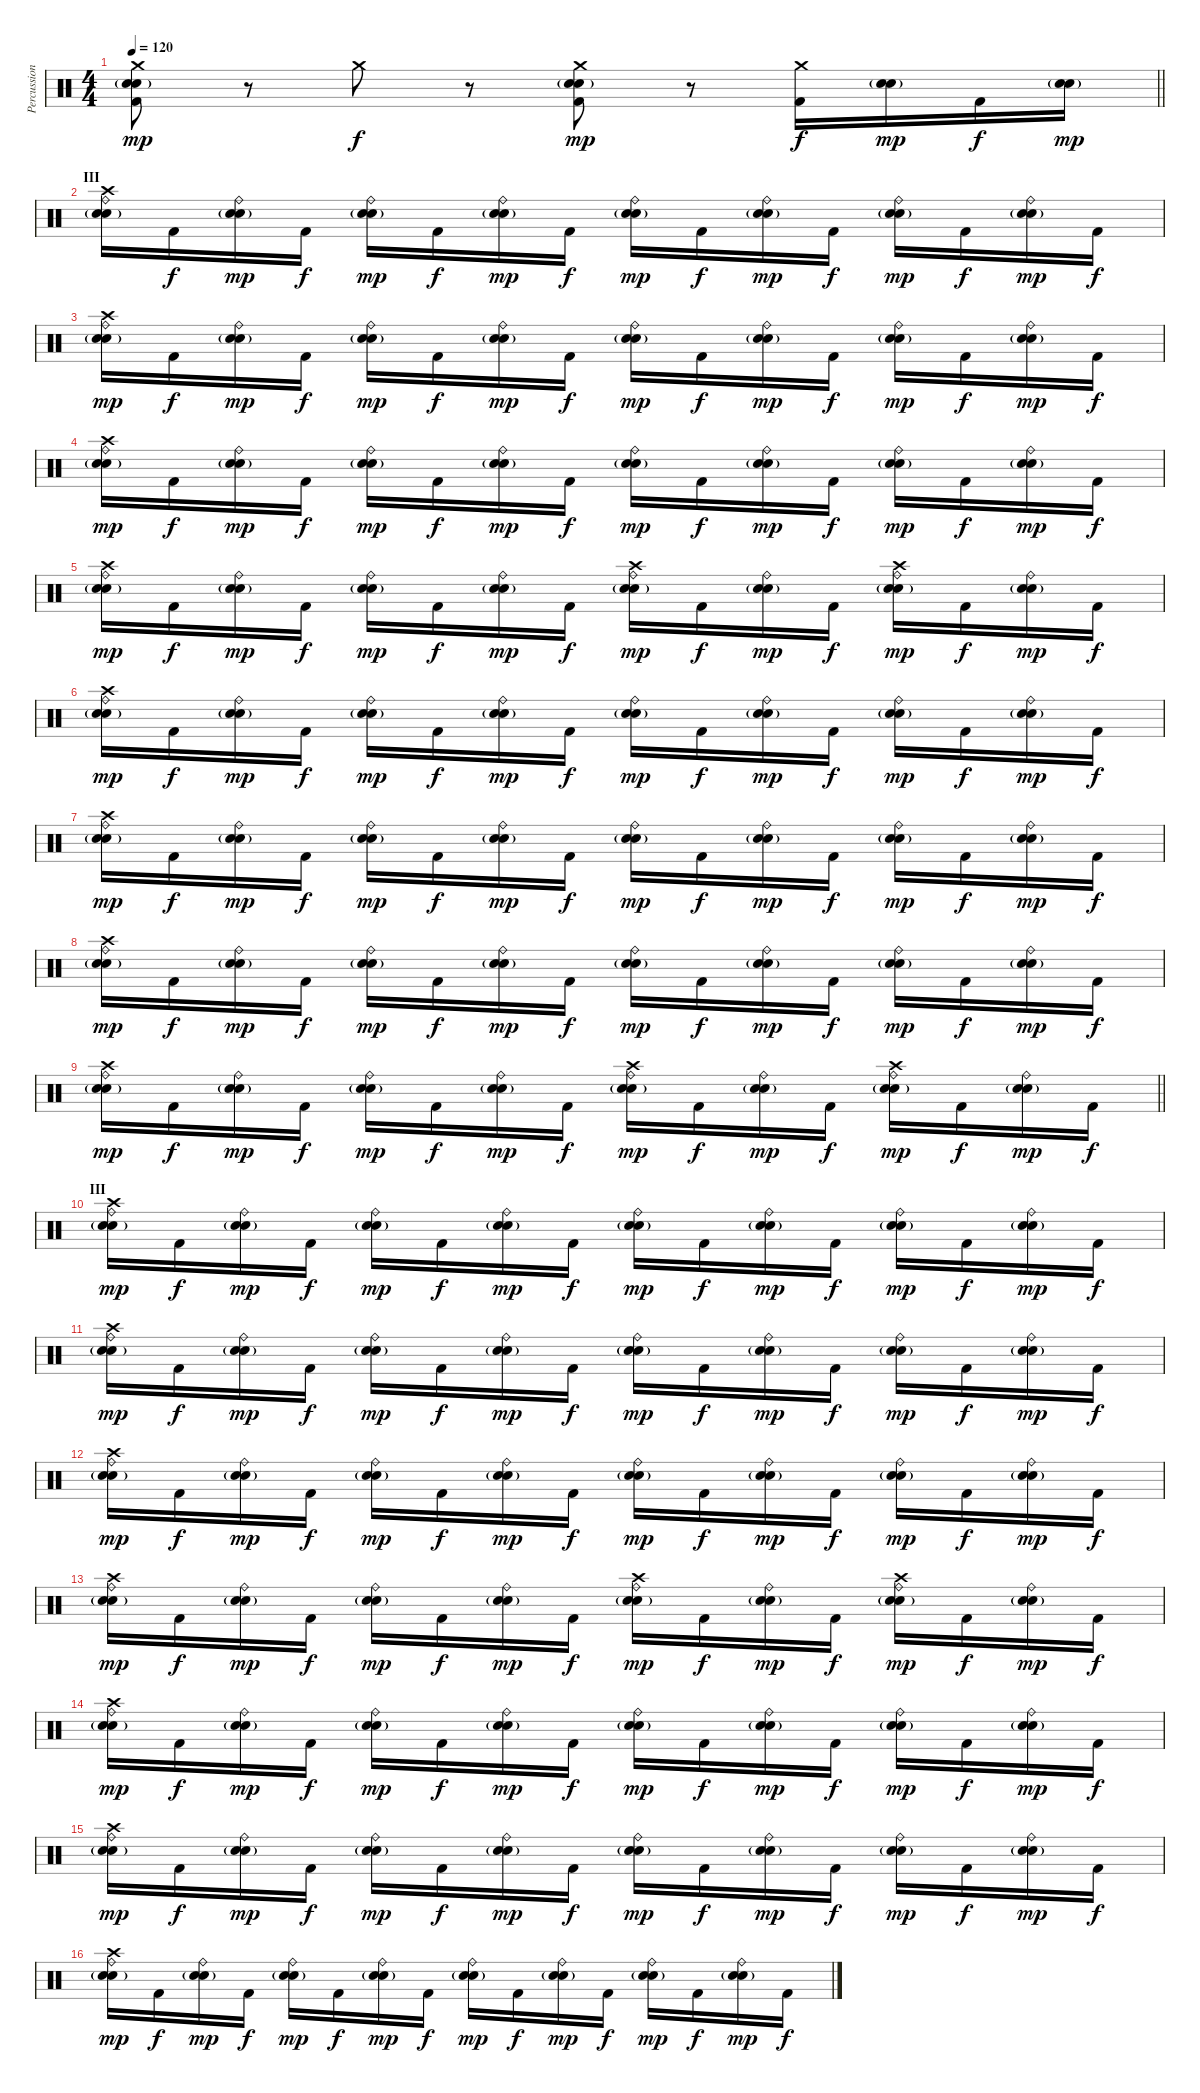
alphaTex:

\track ("Percussion" "Percussion") {instrument percussion}
\staff {score}
\articulation defaults
\ts (4 4)
\tempo 120
\clef neutral
\barLineRight lightlight
\ks c
("Crash medium (hit)" "Electric Snare (hit)" "Snare (hit) 2"{g} "Kick (hit) 2").8{dy mp} r.8 "Crash medium (hit)".8{dy f} r.8 ("Crash medium (hit)" "Electric Snare (hit)" "Snare (hit) 2"{g} "Kick (hit) 2").8{dy mp} r.8 ("Crash medium (hit)" "Kick (hit) 2").16{dy f} ("Electric Snare (hit)" "Snare (hit) 2"{g}).16{dy mp} "Kick (hit) 2".16{dy f} ("Electric Snare (hit)" "Snare (hit) 2"{g}).16{dy mp} |
\section ("" "III")
("Crash high (hit)" "Electric Snare (hit)" "Snare (hit) 2"{g} "Ride (bell)").16 "Kick (hit) 2".16{dy f} ("Electric Snare (hit)" "Snare (hit) 2"{g} "Ride (bell)").16{dy mp} "Kick (hit) 2".16{dy f} ("Electric Snare (hit)" "Snare (hit) 2"{g} "Ride (bell)").16{dy mp} "Kick (hit) 2".16{dy f} ("Electric Snare (hit)" "Snare (hit) 2"{g} "Ride (bell)").16{dy mp} "Kick (hit) 2".16{dy f} ("Electric Snare (hit)" "Snare (hit) 2"{g} "Ride (bell)").16{dy mp} "Kick (hit) 2".16{dy f} ("Electric Snare (hit)" "Snare (hit) 2"{g} "Ride (bell)").16{dy mp} "Kick (hit) 2".16{dy f} ("Electric Snare (hit)" "Snare (hit) 2"{g} "Ride (bell)").16{dy mp} "Kick (hit) 2".16{dy f} ("Electric Snare (hit)" "Snare (hit) 2"{g} "Ride (bell)").16{dy mp} "Kick (hit) 2".16{dy f} |
("Crash high (hit)" "Electric Snare (hit)" "Snare (hit) 2"{g} "Ride (bell)").16{dy mp} "Kick (hit) 2".16{dy f} ("Electric Snare (hit)" "Snare (hit) 2"{g} "Ride (bell)").16{dy mp} "Kick (hit) 2".16{dy f} ("Electric Snare (hit)" "Snare (hit) 2"{g} "Ride (bell)").16{dy mp} "Kick (hit) 2".16{dy f} ("Electric Snare (hit)" "Snare (hit) 2"{g} "Ride (bell)").16{dy mp} "Kick (hit) 2".16{dy f} ("Electric Snare (hit)" "Snare (hit) 2"{g} "Ride (bell)").16{dy mp} "Kick (hit) 2".16{dy f} ("Electric Snare (hit)" "Snare (hit) 2"{g} "Ride (bell)").16{dy mp} "Kick (hit) 2".16{dy f} ("Electric Snare (hit)" "Snare (hit) 2"{g} "Ride (bell)").16{dy mp} "Kick (hit) 2".16{dy f} ("Electric Snare (hit)" "Snare (hit) 2"{g} "Ride (bell)").16{dy mp} "Kick (hit) 2".16{dy f} |
("Crash high (hit)" "Electric Snare (hit)" "Snare (hit) 2"{g} "Ride (bell)").16{dy mp} "Kick (hit) 2".16{dy f} ("Electric Snare (hit)" "Snare (hit) 2"{g} "Ride (bell)").16{dy mp} "Kick (hit) 2".16{dy f} ("Electric Snare (hit)" "Snare (hit) 2"{g} "Ride (bell)").16{dy mp} "Kick (hit) 2".16{dy f} ("Electric Snare (hit)" "Snare (hit) 2"{g} "Ride (bell)").16{dy mp} "Kick (hit) 2".16{dy f} ("Electric Snare (hit)" "Snare (hit) 2"{g} "Ride (bell)").16{dy mp} "Kick (hit) 2".16{dy f} ("Electric Snare (hit)" "Snare (hit) 2"{g} "Ride (bell)").16{dy mp} "Kick (hit) 2".16{dy f} ("Electric Snare (hit)" "Snare (hit) 2"{g} "Ride (bell)").16{dy mp} "Kick (hit) 2".16{dy f} ("Electric Snare (hit)" "Snare (hit) 2"{g} "Ride (bell)").16{dy mp} "Kick (hit) 2".16{dy f} |
("Crash high (hit)" "Electric Snare (hit)" "Snare (hit) 2"{g} "Ride (bell)").16{dy mp} "Kick (hit) 2".16{dy f} ("Electric Snare (hit)" "Snare (hit) 2"{g} "Ride (bell)").16{dy mp} "Kick (hit) 2".16{dy f} ("Electric Snare (hit)" "Snare (hit) 2"{g} "Ride (bell)").16{dy mp} "Kick (hit) 2".16{dy f} ("Electric Snare (hit)" "Snare (hit) 2"{g} "Ride (bell)").16{dy mp} "Kick (hit) 2".16{dy f} ("Crash high (hit)" "Electric Snare (hit)" "Snare (hit) 2"{g} "Ride (bell)").16{dy mp} "Kick (hit) 2".16{dy f} ("Electric Snare (hit)" "Snare (hit) 2"{g} "Ride (bell)").16{dy mp} "Kick (hit) 2".16{dy f} ("Crash high (hit)" "Electric Snare (hit)" "Snare (hit) 2"{g} "Ride (bell)").16{dy mp} "Kick (hit) 2".16{dy f} ("Electric Snare (hit)" "Snare (hit) 2"{g} "Ride (bell)").16{dy mp} "Kick (hit) 2".16{dy f} |
("Crash high (hit)" "Electric Snare (hit)" "Snare (hit) 2"{g} "Ride (bell)").16{dy mp} "Kick (hit) 2".16{dy f} ("Electric Snare (hit)" "Snare (hit) 2"{g} "Ride (bell)").16{dy mp} "Kick (hit) 2".16{dy f} ("Electric Snare (hit)" "Snare (hit) 2"{g} "Ride (bell)").16{dy mp} "Kick (hit) 2".16{dy f} ("Electric Snare (hit)" "Snare (hit) 2"{g} "Ride (bell)").16{dy mp} "Kick (hit) 2".16{dy f} ("Electric Snare (hit)" "Snare (hit) 2"{g} "Ride (bell)").16{dy mp} "Kick (hit) 2".16{dy f} ("Electric Snare (hit)" "Snare (hit) 2"{g} "Ride (bell)").16{dy mp} "Kick (hit) 2".16{dy f} ("Electric Snare (hit)" "Snare (hit) 2"{g} "Ride (bell)").16{dy mp} "Kick (hit) 2".16{dy f} ("Electric Snare (hit)" "Snare (hit) 2"{g} "Ride (bell)").16{dy mp} "Kick (hit) 2".16{dy f} |
("Crash high (hit)" "Electric Snare (hit)" "Snare (hit) 2"{g} "Ride (bell)").16{dy mp} "Kick (hit) 2".16{dy f} ("Electric Snare (hit)" "Snare (hit) 2"{g} "Ride (bell)").16{dy mp} "Kick (hit) 2".16{dy f} ("Electric Snare (hit)" "Snare (hit) 2"{g} "Ride (bell)").16{dy mp} "Kick (hit) 2".16{dy f} ("Electric Snare (hit)" "Snare (hit) 2"{g} "Ride (bell)").16{dy mp} "Kick (hit) 2".16{dy f} ("Electric Snare (hit)" "Snare (hit) 2"{g} "Ride (bell)").16{dy mp} "Kick (hit) 2".16{dy f} ("Electric Snare (hit)" "Snare (hit) 2"{g} "Ride (bell)").16{dy mp} "Kick (hit) 2".16{dy f} ("Electric Snare (hit)" "Snare (hit) 2"{g} "Ride (bell)").16{dy mp} "Kick (hit) 2".16{dy f} ("Electric Snare (hit)" "Snare (hit) 2"{g} "Ride (bell)").16{dy mp} "Kick (hit) 2".16{dy f} |
("Crash high (hit)" "Electric Snare (hit)" "Snare (hit) 2"{g} "Ride (bell)").16{dy mp} "Kick (hit) 2".16{dy f} ("Electric Snare (hit)" "Snare (hit) 2"{g} "Ride (bell)").16{dy mp} "Kick (hit) 2".16{dy f} ("Electric Snare (hit)" "Snare (hit) 2"{g} "Ride (bell)").16{dy mp} "Kick (hit) 2".16{dy f} ("Electric Snare (hit)" "Snare (hit) 2"{g} "Ride (bell)").16{dy mp} "Kick (hit) 2".16{dy f} ("Electric Snare (hit)" "Snare (hit) 2"{g} "Ride (bell)").16{dy mp} "Kick (hit) 2".16{dy f} ("Electric Snare (hit)" "Snare (hit) 2"{g} "Ride (bell)").16{dy mp} "Kick (hit) 2".16{dy f} ("Electric Snare (hit)" "Snare (hit) 2"{g} "Ride (bell)").16{dy mp} "Kick (hit) 2".16{dy f} ("Electric Snare (hit)" "Snare (hit) 2"{g} "Ride (bell)").16{dy mp} "Kick (hit) 2".16{dy f} |
\barLineRight lightlight
("Crash high (hit)" "Electric Snare (hit)" "Snare (hit) 2"{g} "Ride (bell)").16{dy mp} "Kick (hit) 2".16{dy f} ("Electric Snare (hit)" "Snare (hit) 2"{g} "Ride (bell)").16{dy mp} "Kick (hit) 2".16{dy f} ("Electric Snare (hit)" "Snare (hit) 2"{g} "Ride (bell)").16{dy mp} "Kick (hit) 2".16{dy f} ("Electric Snare (hit)" "Snare (hit) 2"{g} "Ride (bell)").16{dy mp} "Kick (hit) 2".16{dy f} ("Crash high (hit)" "Electric Snare (hit)" "Snare (hit) 2"{g} "Ride (bell)").16{dy mp} "Kick (hit) 2".16{dy f} ("Electric Snare (hit)" "Snare (hit) 2"{g} "Ride (bell)").16{dy mp} "Kick (hit) 2".16{dy f} ("Crash high (hit)" "Electric Snare (hit)" "Snare (hit) 2"{g} "Ride (bell)").16{dy mp} "Kick (hit) 2".16{dy f} ("Electric Snare (hit)" "Snare (hit) 2"{g} "Ride (bell)").16{dy mp} "Kick (hit) 2".16{dy f} |
\section ("" "III")
("Crash high (hit)" "Electric Snare (hit)" "Snare (hit) 2"{g} "Ride (bell)").16{dy mp} "Kick (hit) 2".16{dy f} ("Electric Snare (hit)" "Snare (hit) 2"{g} "Ride (bell)").16{dy mp} "Kick (hit) 2".16{dy f} ("Electric Snare (hit)" "Snare (hit) 2"{g} "Ride (bell)").16{dy mp} "Kick (hit) 2".16{dy f} ("Electric Snare (hit)" "Snare (hit) 2"{g} "Ride (bell)").16{dy mp} "Kick (hit) 2".16{dy f} ("Electric Snare (hit)" "Snare (hit) 2"{g} "Ride (bell)").16{dy mp} "Kick (hit) 2".16{dy f} ("Electric Snare (hit)" "Snare (hit) 2"{g} "Ride (bell)").16{dy mp} "Kick (hit) 2".16{dy f} ("Electric Snare (hit)" "Snare (hit) 2"{g} "Ride (bell)").16{dy mp} "Kick (hit) 2".16{dy f} ("Electric Snare (hit)" "Snare (hit) 2"{g} "Ride (bell)").16{dy mp} "Kick (hit) 2".16{dy f} |
("Crash high (hit)" "Electric Snare (hit)" "Snare (hit) 2"{g} "Ride (bell)").16{dy mp} "Kick (hit) 2".16{dy f} ("Electric Snare (hit)" "Snare (hit) 2"{g} "Ride (bell)").16{dy mp} "Kick (hit) 2".16{dy f} ("Electric Snare (hit)" "Snare (hit) 2"{g} "Ride (bell)").16{dy mp} "Kick (hit) 2".16{dy f} ("Electric Snare (hit)" "Snare (hit) 2"{g} "Ride (bell)").16{dy mp} "Kick (hit) 2".16{dy f} ("Electric Snare (hit)" "Snare (hit) 2"{g} "Ride (bell)").16{dy mp} "Kick (hit) 2".16{dy f} ("Electric Snare (hit)" "Snare (hit) 2"{g} "Ride (bell)").16{dy mp} "Kick (hit) 2".16{dy f} ("Electric Snare (hit)" "Snare (hit) 2"{g} "Ride (bell)").16{dy mp} "Kick (hit) 2".16{dy f} ("Electric Snare (hit)" "Snare (hit) 2"{g} "Ride (bell)").16{dy mp} "Kick (hit) 2".16{dy f} |
("Crash high (hit)" "Electric Snare (hit)" "Snare (hit) 2"{g} "Ride (bell)").16{dy mp} "Kick (hit) 2".16{dy f} ("Electric Snare (hit)" "Snare (hit) 2"{g} "Ride (bell)").16{dy mp} "Kick (hit) 2".16{dy f} ("Electric Snare (hit)" "Snare (hit) 2"{g} "Ride (bell)").16{dy mp} "Kick (hit) 2".16{dy f} ("Electric Snare (hit)" "Snare (hit) 2"{g} "Ride (bell)").16{dy mp} "Kick (hit) 2".16{dy f} ("Electric Snare (hit)" "Snare (hit) 2"{g} "Ride (bell)").16{dy mp} "Kick (hit) 2".16{dy f} ("Electric Snare (hit)" "Snare (hit) 2"{g} "Ride (bell)").16{dy mp} "Kick (hit) 2".16{dy f} ("Electric Snare (hit)" "Snare (hit) 2"{g} "Ride (bell)").16{dy mp} "Kick (hit) 2".16{dy f} ("Electric Snare (hit)" "Snare (hit) 2"{g} "Ride (bell)").16{dy mp} "Kick (hit) 2".16{dy f} |
("Crash high (hit)" "Electric Snare (hit)" "Snare (hit) 2"{g} "Ride (bell)").16{dy mp} "Kick (hit) 2".16{dy f} ("Electric Snare (hit)" "Snare (hit) 2"{g} "Ride (bell)").16{dy mp} "Kick (hit) 2".16{dy f} ("Electric Snare (hit)" "Snare (hit) 2"{g} "Ride (bell)").16{dy mp} "Kick (hit) 2".16{dy f} ("Electric Snare (hit)" "Snare (hit) 2"{g} "Ride (bell)").16{dy mp} "Kick (hit) 2".16{dy f} ("Crash high (hit)" "Electric Snare (hit)" "Snare (hit) 2"{g} "Ride (bell)").16{dy mp} "Kick (hit) 2".16{dy f} ("Electric Snare (hit)" "Snare (hit) 2"{g} "Ride (bell)").16{dy mp} "Kick (hit) 2".16{dy f} ("Crash high (hit)" "Electric Snare (hit)" "Snare (hit) 2"{g} "Ride (bell)").16{dy mp} "Kick (hit) 2".16{dy f} ("Electric Snare (hit)" "Snare (hit) 2"{g} "Ride (bell)").16{dy mp} "Kick (hit) 2".16{dy f} |
("Crash high (hit)" "Electric Snare (hit)" "Snare (hit) 2"{g} "Ride (bell)").16{dy mp} "Kick (hit) 2".16{dy f} ("Electric Snare (hit)" "Snare (hit) 2"{g} "Ride (bell)").16{dy mp} "Kick (hit) 2".16{dy f} ("Electric Snare (hit)" "Snare (hit) 2"{g} "Ride (bell)").16{dy mp} "Kick (hit) 2".16{dy f} ("Electric Snare (hit)" "Snare (hit) 2"{g} "Ride (bell)").16{dy mp} "Kick (hit) 2".16{dy f} ("Electric Snare (hit)" "Snare (hit) 2"{g} "Ride (bell)").16{dy mp} "Kick (hit) 2".16{dy f} ("Electric Snare (hit)" "Snare (hit) 2"{g} "Ride (bell)").16{dy mp} "Kick (hit) 2".16{dy f} ("Electric Snare (hit)" "Snare (hit) 2"{g} "Ride (bell)").16{dy mp} "Kick (hit) 2".16{dy f} ("Electric Snare (hit)" "Snare (hit) 2"{g} "Ride (bell)").16{dy mp} "Kick (hit) 2".16{dy f} |
("Crash high (hit)" "Electric Snare (hit)" "Snare (hit) 2"{g} "Ride (bell)").16{dy mp} "Kick (hit) 2".16{dy f} ("Electric Snare (hit)" "Snare (hit) 2"{g} "Ride (bell)").16{dy mp} "Kick (hit) 2".16{dy f} ("Electric Snare (hit)" "Snare (hit) 2"{g} "Ride (bell)").16{dy mp} "Kick (hit) 2".16{dy f} ("Electric Snare (hit)" "Snare (hit) 2"{g} "Ride (bell)").16{dy mp} "Kick (hit) 2".16{dy f} ("Electric Snare (hit)" "Snare (hit) 2"{g} "Ride (bell)").16{dy mp} "Kick (hit) 2".16{dy f} ("Electric Snare (hit)" "Snare (hit) 2"{g} "Ride (bell)").16{dy mp} "Kick (hit) 2".16{dy f} ("Electric Snare (hit)" "Snare (hit) 2"{g} "Ride (bell)").16{dy mp} "Kick (hit) 2".16{dy f} ("Electric Snare (hit)" "Snare (hit) 2"{g} "Ride (bell)").16{dy mp} "Kick (hit) 2".16{dy f} |
("Crash high (hit)" "Electric Snare (hit)" "Snare (hit) 2"{g} "Ride (bell)").16{dy mp} "Kick (hit) 2".16{dy f} ("Electric Snare (hit)" "Snare (hit) 2"{g} "Ride (bell)").16{dy mp} "Kick (hit) 2".16{dy f} ("Electric Snare (hit)" "Snare (hit) 2"{g} "Ride (bell)").16{dy mp} "Kick (hit) 2".16{dy f} ("Electric Snare (hit)" "Snare (hit) 2"{g} "Ride (bell)").16{dy mp} "Kick (hit) 2".16{dy f} ("Electric Snare (hit)" "Snare (hit) 2"{g} "Ride (bell)").16{dy mp} "Kick (hit) 2".16{dy f} ("Electric Snare (hit)" "Snare (hit) 2"{g} "Ride (bell)").16{dy mp} "Kick (hit) 2".16{dy f} ("Electric Snare (hit)" "Snare (hit) 2"{g} "Ride (bell)").16{dy mp} "Kick (hit) 2".16{dy f} ("Electric Snare (hit)" "Snare (hit) 2"{g} "Ride (bell)").16{dy mp} "Kick (hit) 2".16{dy f}
